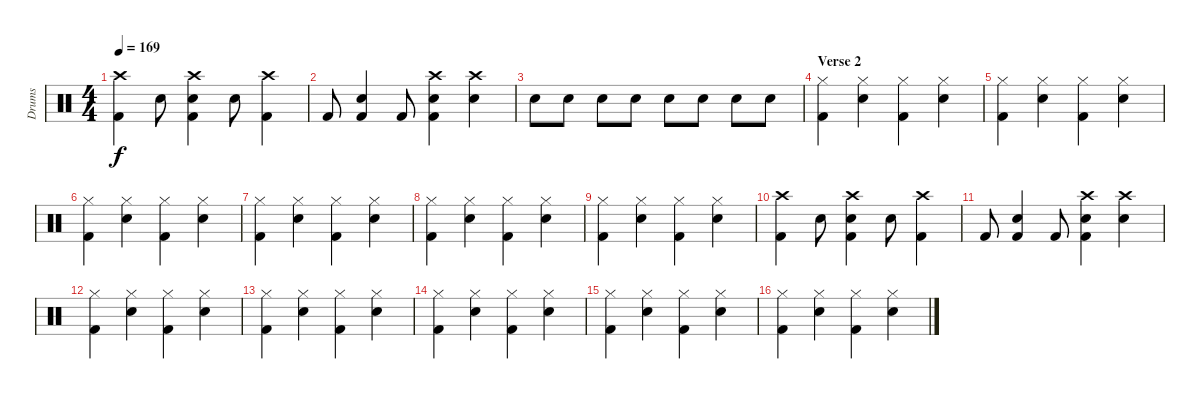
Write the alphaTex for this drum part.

\track ("Drums" "Drums") {instrument percussion}
\staff {score}
\articulation defaults
\ts (4 4)
\tempo 169
\clef neutral
\ks c
("Crash high (hit)" "Kick (hit) 2").4{dy f} "Snare (hit) 2".8 ("Crash high (hit)" "Snare (hit) 2" "Kick (hit) 2").4 "Snare (hit) 2".8 ("Crash high (hit)" "Kick (hit) 2").4 |
"Kick (hit) 2".8 ("Snare (hit) 2" "Kick (hit) 2").4 "Kick (hit) 2".8 ("Kick (hit) 2" "Crash high (hit)" "Snare (hit) 2").4 ("Crash high (hit)" "Snare (hit) 2").4 |
"Snare (hit) 2".8 "Snare (hit) 2".8 "Snare (hit) 2".8 "Snare (hit) 2".8 "Snare (hit) 2".8 "Snare (hit) 2".8 "Snare (hit) 2".8 "Snare (hit) 2".8 |
\section ("" "Verse 2")
("Hi-Hat (closed)" "Kick (hit) 2").4 ("Hi-Hat (closed)" "Snare (hit) 2").4 ("Hi-Hat (closed)" "Kick (hit) 2").4 ("Hi-Hat (closed)" "Snare (hit) 2").4 |
("Hi-Hat (closed)" "Kick (hit) 2").4 ("Hi-Hat (closed)" "Snare (hit) 2").4 ("Hi-Hat (closed)" "Kick (hit) 2").4 ("Hi-Hat (closed)" "Snare (hit) 2").4 |
("Hi-Hat (closed)" "Kick (hit) 2").4 ("Hi-Hat (closed)" "Snare (hit) 2").4 ("Hi-Hat (closed)" "Kick (hit) 2").4 ("Hi-Hat (closed)" "Snare (hit) 2").4 |
("Hi-Hat (closed)" "Kick (hit) 2").4 ("Hi-Hat (closed)" "Snare (hit) 2").4 ("Hi-Hat (closed)" "Kick (hit) 2").4 ("Hi-Hat (closed)" "Snare (hit) 2").4 |
("Hi-Hat (closed)" "Kick (hit) 2").4 ("Hi-Hat (closed)" "Snare (hit) 2").4 ("Hi-Hat (closed)" "Kick (hit) 2").4 ("Hi-Hat (closed)" "Snare (hit) 2").4 |
("Hi-Hat (closed)" "Kick (hit) 2").4 ("Hi-Hat (closed)" "Snare (hit) 2").4 ("Hi-Hat (closed)" "Kick (hit) 2").4 ("Hi-Hat (closed)" "Snare (hit) 2").4 |
("Crash high (hit)" "Kick (hit) 2").4 "Snare (hit) 2".8 ("Crash high (hit)" "Snare (hit) 2" "Kick (hit) 2").4 "Snare (hit) 2".8 ("Crash high (hit)" "Kick (hit) 2").4 |
"Kick (hit) 2".8 ("Snare (hit) 2" "Kick (hit) 2").4 "Kick (hit) 2".8 ("Kick (hit) 2" "Crash high (hit)" "Snare (hit) 2").4 ("Crash high (hit)" "Snare (hit) 2").4 |
("Hi-Hat (closed)" "Kick (hit) 2").4 ("Hi-Hat (closed)" "Snare (hit) 2").4 ("Hi-Hat (closed)" "Kick (hit) 2").4 ("Hi-Hat (closed)" "Snare (hit) 2").4 |
("Hi-Hat (closed)" "Kick (hit) 2").4 ("Hi-Hat (closed)" "Snare (hit) 2").4 ("Hi-Hat (closed)" "Kick (hit) 2").4 ("Hi-Hat (closed)" "Snare (hit) 2").4 |
("Hi-Hat (closed)" "Kick (hit) 2").4 ("Hi-Hat (closed)" "Snare (hit) 2").4 ("Hi-Hat (closed)" "Kick (hit) 2").4 ("Hi-Hat (closed)" "Snare (hit) 2").4 |
("Hi-Hat (closed)" "Kick (hit) 2").4 ("Hi-Hat (closed)" "Snare (hit) 2").4 ("Hi-Hat (closed)" "Kick (hit) 2").4 ("Hi-Hat (closed)" "Snare (hit) 2").4 |
("Hi-Hat (closed)" "Kick (hit) 2").4 ("Hi-Hat (closed)" "Snare (hit) 2").4 ("Hi-Hat (closed)" "Kick (hit) 2").4 ("Hi-Hat (closed)" "Snare (hit) 2").4
